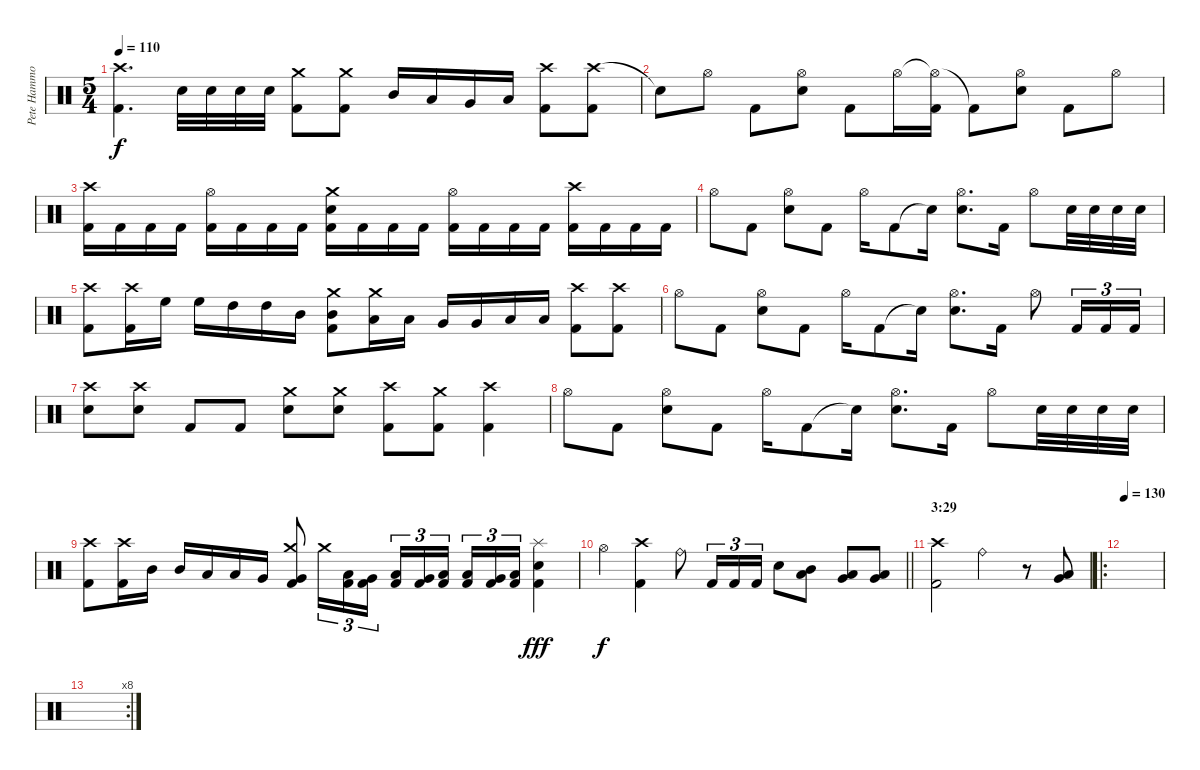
\track ("Pete Hammoura" "Pete Hammo") {instrument percussion}
\staff {score}
\articulation defaults
\ts (5 4)
\tempo 110
\clef neutral
\ks c
("Crash high (hit)" "Kick (hit) 2").4{d dy f} "Electric Snare (hit)".32 "Electric Snare (hit)".32 "Electric Snare (hit)".32 "Electric Snare (hit)".32 ("Crash medium (hit)" "Kick (hit) 2").8 ("Crash medium (hit)" "Kick (hit) 2").8 "Mid Tom (hit)".16 "Low Tom (hit)".16 "Very Low Tom (hit)".16 "Low Floor Tom (hit)".16 ("Crash high (hit)" "Kick (hit) 2").8 ("Crash high (hit)" "Kick (hit) 2").8 |
"Snare (hit)"{t}.8 "Hi-Hat (open)".8 "Kick (hit) 2".8 ("Hi-Hat (open)" "Electric Snare (hit)").8 "Kick (hit) 2".8 "Hi-Hat (open)".16 ("Hi-Hat (open)"{t} "Kick (hit) 2").16 "Kick (hit) 2"{t}.8 ("Hi-Hat (open)" "Electric Snare (hit)").8 "Kick (hit) 2".8 "Hi-Hat (open)".8 |
("Crash high (hit)" "Kick (hit) 2").16 "Kick (hit) 2".16 "Kick (hit) 2".16 "Kick (hit) 2".16 ("Hi-Hat (open)" "Kick (hit) 2").16 "Kick (hit) 2".16 "Kick (hit) 2".16 "Kick (hit) 2".16 ("Crash medium (hit)" "Electric Snare (hit)" "Kick (hit) 2").16 "Kick (hit) 2".16 "Kick (hit) 2".16 "Kick (hit) 2".16 ("Hi-Hat (open)" "Kick (hit) 2").16 "Kick (hit) 2".16 "Kick (hit) 2".16 "Kick (hit) 2".16 ("Crash high (hit)" "Kick (hit) 2").16 "Kick (hit) 2".16 "Kick (hit) 2".16 "Kick (hit) 2".16 |
"Hi-Hat (open)".8 "Kick (hit) 2".8 ("Hi-Hat (open)" "Electric Snare (hit)").8 "Kick (hit) 2".8 "Hi-Hat (open)".16 "Kick (hit) 2".8 "Snare (hit)"{t}.16 ("Hi-Hat (open)" "Electric Snare (hit)").8{d} "Kick (hit) 2".16 "Hi-Hat (open)".8 "Electric Snare (hit)".32 "Electric Snare (hit)".32 "Electric Snare (hit)".32 "Electric Snare (hit)".32 |
("Crash high (hit)" "Kick (hit) 2").8 ("Crash high (hit)" "Kick (hit) 2").16 "High Floor Tom (hit)".16 "High Floor Tom (hit)".16 "High Tom (hit)".16 "High Tom (hit)".16 "Mid Tom (hit)".16 ("Crash medium (hit)" "Mid Tom (hit)" "Kick (hit) 2").8 ("Crash medium (hit)" "Low Tom (hit)").16 "Low Tom (hit)".16 "Very Low Tom (hit)".16 "Very Low Tom (hit)".16 "Low Floor Tom (hit)".16 "Low Floor Tom (hit)".16 ("Crash high (hit)" "Kick (hit) 2").8 ("Crash high (hit)" "Kick (hit) 2").8 |
"Hi-Hat (open)".8 "Kick (hit) 2".8 ("Hi-Hat (open)" "Electric Snare (hit)").8 "Kick (hit) 2".8 "Hi-Hat (open)".16 "Kick (hit) 2".8 "Snare (hit)"{t}.16 ("Hi-Hat (open)" "Electric Snare (hit)").8{d} "Kick (hit) 2".16 "Hi-Hat (open)".8 "Kick (hit) 2".16{tu (3 2)} "Kick (hit) 2".16{tu (3 2)} "Kick (hit) 2".16{tu (3 2)} |
("Crash high (hit)" "Electric Snare (hit)").8 ("Crash high (hit)" "Electric Snare (hit)").8 "Kick (hit) 2".8 "Kick (hit) 2".8 ("Crash medium (hit)" "Electric Snare (hit)").8 ("Crash medium (hit)" "Electric Snare (hit)").8 ("Crash high (hit)" "Kick (hit) 2").8 ("Crash medium (hit)" "Kick (hit) 2").8 ("Crash high (hit)" "Kick (hit) 2").4 |
"Hi-Hat (open)".8 "Kick (hit) 2".8 ("Hi-Hat (open)" "Electric Snare (hit)").8 "Kick (hit) 2".8 "Hi-Hat (open)".16 "Kick (hit) 2".8 "Snare (hit)"{t}.16 ("Hi-Hat (open)" "Electric Snare (hit)").8{d} "Kick (hit) 2".16 "Hi-Hat (open)".8 "Electric Snare (hit)".32 "Electric Snare (hit)".32 "Electric Snare (hit)".32 "Electric Snare (hit)".32 |
("Crash high (hit)" "Kick (hit) 2").8 ("Crash high (hit)" "Kick (hit) 2").16 "Mid Tom (hit)".16 "Mid Tom (hit)".16 "Low Tom (hit)".16 "Low Tom (hit)".16 "Very Low Tom (hit)".16 ("Crash medium (hit)" "Very Low Tom (hit)" "Kick (hit) 2").8 "Crash medium (hit)".16{tu (3 2)} ("Low Floor Tom (hit)" "Kick (hit) 2").16{tu (3 2)} ("Very Low Tom (hit)" "Kick (hit) 2").16{tu (3 2)} ("Low Tom (hit)" "Kick (hit) 2").16{tu (3 2)} ("Very Low Tom (hit)" "Kick (hit) 2").16{tu (3 2)} ("Low Floor Tom (hit)" "Kick (hit) 2").16{tu (3 2) beam splitsecondary} ("Low Tom (hit)" "Kick (hit) 2").16{tu (3 2)} ("Very Low Tom (hit)" "Kick (hit) 2").16{tu (3 2)} ("Low Floor Tom (hit)" "Kick (hit) 2").16{tu (3 2)} ("Splash (hit)" "Electric Snare (hit)" "Kick (hit) 2").4{dy fff} |
\barLineRight lightlight "Hi-Hat (open)".4{dy f}
("Crash high (hit)" "Kick (hit) 2").4 "Ride (bell)".8 "Kick (hit) 2".16{tu (3 2)} "Kick (hit) 2".16{tu (3 2)} "Kick (hit) 2".16{tu (3 2)} "Electric Snare (hit)".8 ("Mid Tom (hit)" "Low Tom (hit)").8 ("Low Tom (hit)" "Very Low Tom (hit)").8 ("Very Low Tom (hit)" "Low Floor Tom (hit)").8 |
\section ("" "3:29")
("Crash high (hit)" "Kick (hit) 2").2 "Ride (bell)".2 r.8 ("Low Tom (hit)" "Very Low Tom (hit)").8 |
\ro
\tempo 130
|
\rc 8
